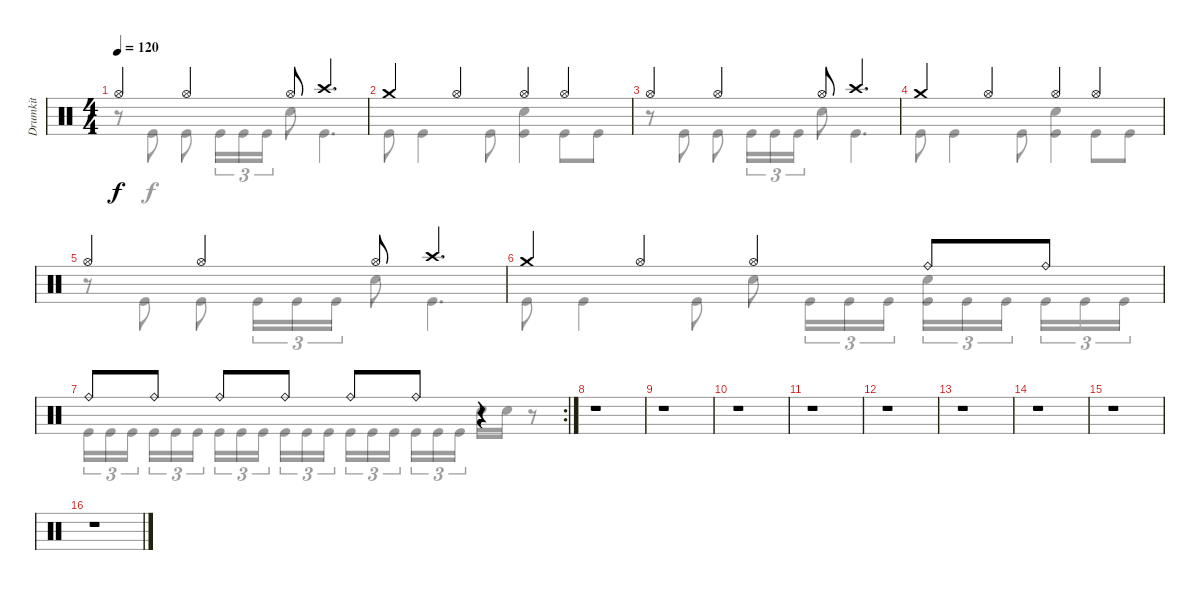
\track ("Drumkit" "Drumkit") {instrument percussion}
\staff {score}
\articulation defaults
\voice
\ts (4 4)
\tempo 120
\clef neutral
\ks c "Hi-Hat (open)".4{dy f} "Hi-Hat (open)".4 "Hi-Hat (open)".8 "Crash high (hit)".4{d}
|
"Crash medium (hit)".4 "Hi-Hat (open)".4 "Hi-Hat (open)".4 "Hi-Hat (open)".4 |
"Hi-Hat (open)".4 "Hi-Hat (open)".4 "Hi-Hat (open)".8 "Crash high (hit)".4{d} |
"Crash medium (hit)".4 "Hi-Hat (open)".4 "Hi-Hat (open)".4 "Hi-Hat (open)".4 |
"Hi-Hat (open)".4 "Hi-Hat (open)".4 "Hi-Hat (open)".8 "Crash high (hit)".4{d} |
"Crash medium (hit)".4 "Hi-Hat (open)".4 "Hi-Hat (open)".4 "Ride (bell)".8 "Ride (bell)".8 |
\rc 2 "Ride (bell)".8 "Ride (bell)".8 "Ride (bell)".8 "Ride (bell)".8 "Ride (bell)".8 "Ride (bell)".8
r.4 |
r.1 |
r.1 |
r.1 |
r.1 |
r.1 |
r.1 |
r.1 |
r.1 |
r.1
\voice
\clef neutral
\ottava regular
\simile none
\ks c
r.8{dy f} "Kick (hit)".8 "Kick (hit)".8 "Kick (hit)".16{tu (3 2)} "Kick (hit)".16{tu (3 2)} "Kick (hit)".16{tu (3 2)} "Snare (hit) 2".8 "Kick (hit)".4{d} |
"Kick (hit)".8 "Kick (hit)".4 "Kick (hit)".8 ("Snare (hit) 2" "Kick (hit)").4 "Kick (hit)".8 "Kick (hit)".8 |
r.8 "Kick (hit)".8 "Kick (hit)".8 "Kick (hit)".16{tu (3 2)} "Kick (hit)".16{tu (3 2)} "Kick (hit)".16{tu (3 2)} "Snare (hit) 2".8 "Kick (hit)".4{d} |
"Kick (hit)".8 "Kick (hit)".4 "Kick (hit)".8 ("Snare (hit) 2" "Kick (hit)").4 "Kick (hit)".8 "Kick (hit)".8 |
r.8 "Kick (hit)".8 "Kick (hit)".8 "Kick (hit)".16{tu (3 2)} "Kick (hit)".16{tu (3 2)} "Kick (hit)".16{tu (3 2)} "Snare (hit) 2".8 "Kick (hit)".4{d} |
"Kick (hit)".8 "Kick (hit)".4 "Kick (hit)".8 "Snare (hit) 2".8 "Kick (hit)".16{tu (3 2)} "Kick (hit)".16{tu (3 2)} "Kick (hit)".16{tu (3 2)} ("Snare (hit) 2" "Kick (hit)").16{tu (3 2)} "Kick (hit)".16{tu (3 2)} "Kick (hit)".16{tu (3 2) beam splitsecondary} "Kick (hit)".16{tu (3 2)} "Kick (hit)".16{tu (3 2)} "Kick (hit)".16{tu (3 2)} |
"Kick (hit)".16{tu (3 2)} "Kick (hit)".16{tu (3 2)} "Kick (hit)".16{tu (3 2) beam splitsecondary} "Kick (hit)".16{tu (3 2)} "Kick (hit)".16{tu (3 2)} "Kick (hit)".16{tu (3 2)} "Kick (hit)".16{tu (3 2)} "Kick (hit)".16{tu (3 2)} "Kick (hit)".16{tu (3 2) beam splitsecondary} "Kick (hit)".16{tu (3 2)} "Kick (hit)".16{tu (3 2)} "Kick (hit)".16{tu (3 2)} "Kick (hit)".16{tu (3 2)} "Kick (hit)".16{tu (3 2)} "Kick (hit)".16{tu (3 2) beam splitsecondary} "Kick (hit)".16{tu (3 2)} "Kick (hit)".16{tu (3 2)} "Kick (hit)".16{tu (3 2)} "Snare (hit) 2".16 "Snare (hit) 2".16 r.8 |
|
|
|
|
|
|
|
|
